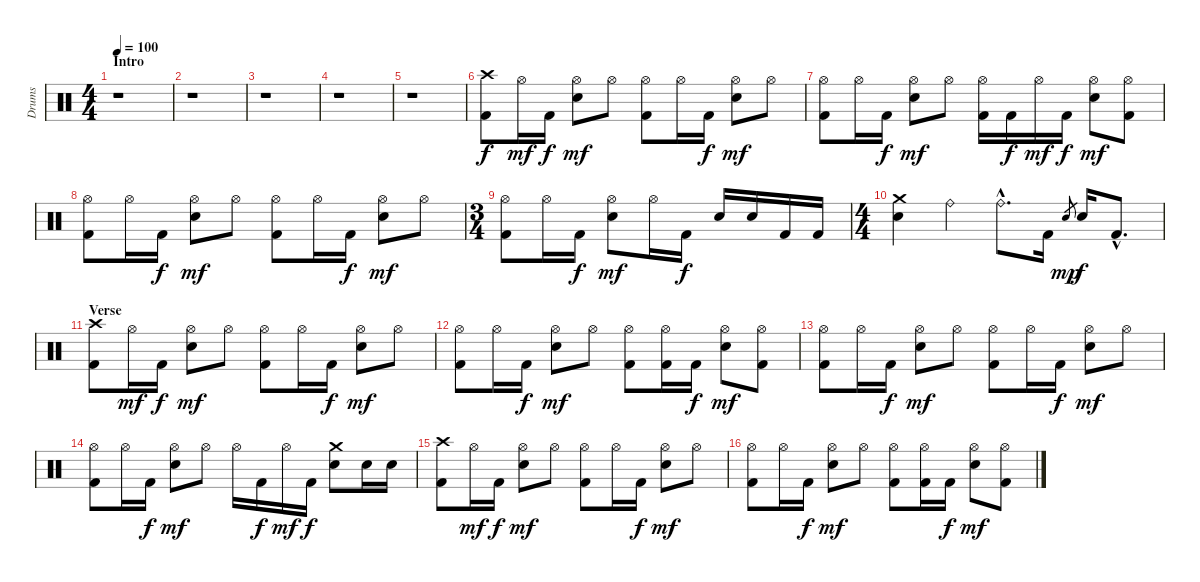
\track ("Drums" "Drums") {instrument percussion}
\staff {score}
\articulation defaults
\ts (4 4)
\section ("" "Intro")
\tempo 100
\clef neutral
\ks c
r.1{dy f} |
r.1 |
r.1 |
r.1 |
r.1 |
("Crash high (hit)" "Kick (hit) 2").8 "Hi-Hat (open)".16{dy mf} "Kick (hit) 2".16{dy f} ("Hi-Hat (open)" "Electric Snare (hit)").8{dy mf} "Hi-Hat (open)".8 ("Hi-Hat (open)" "Kick (hit) 2").8 "Hi-Hat (open)".16 "Kick (hit) 2".16{dy f} ("Hi-Hat (open)" "Electric Snare (hit)").8{dy mf} "Hi-Hat (open)".8 |
("Hi-Hat (open)" "Kick (hit) 2").8 "Hi-Hat (open)".16 "Kick (hit) 2".16{dy f} ("Hi-Hat (open)" "Electric Snare (hit)").8{dy mf} "Hi-Hat (open)".8 ("Hi-Hat (open)" "Kick (hit) 2").16 "Kick (hit) 2".16{dy f} "Hi-Hat (open)".16{dy mf} "Kick (hit) 2".16{dy f} ("Hi-Hat (open)" "Electric Snare (hit)").8{dy mf} ("Hi-Hat (open)" "Kick (hit) 2").8 |
("Hi-Hat (open)" "Kick (hit) 2").8 "Hi-Hat (open)".16 "Kick (hit) 2".16{dy f} ("Hi-Hat (open)" "Electric Snare (hit)").8{dy mf} "Hi-Hat (open)".8 ("Hi-Hat (open)" "Kick (hit) 2").8 "Hi-Hat (open)".16 "Kick (hit) 2".16{dy f} ("Hi-Hat (open)" "Electric Snare (hit)").8{dy mf} "Hi-Hat (open)".8 |
\ts (3 4)
("Hi-Hat (open)" "Kick (hit) 2").8 "Hi-Hat (open)".16 "Kick (hit) 2".16{dy f} ("Hi-Hat (open)" "Electric Snare (hit)").8{dy mf} "Hi-Hat (open)".16 "Kick (hit) 2".16{dy f} "Electric Snare (hit)".16 "Electric Snare (hit)".16 "Kick (hit) 2".16 "Kick (hit) 2".16 |
\ts (4 4)
("Crash medium (hit)" "Electric Snare (hit)").4 "Ride (bell)".4 "Ride (bell)"{hac}.8{d} "Kick (hit) 2".16 "Electric Snare (hit)".8{gr dy mp} "Electric Snare (hit)".16{dy f} "Kick (hit) 2"{hac}.8{d} |
\section ("" "Verse")
("Crash high (hit)" "Kick (hit) 2").8 "Hi-Hat (open)".16{dy mf} "Kick (hit) 2".16{dy f} ("Hi-Hat (open)" "Electric Snare (hit)").8{dy mf} "Hi-Hat (open)".8 ("Hi-Hat (open)" "Kick (hit) 2").8 "Hi-Hat (open)".16 "Kick (hit) 2".16{dy f} ("Hi-Hat (open)" "Electric Snare (hit)").8{dy mf} "Hi-Hat (open)".8 |
("Hi-Hat (open)" "Kick (hit) 2").8 "Hi-Hat (open)".16 "Kick (hit) 2".16{dy f} ("Hi-Hat (open)" "Electric Snare (hit)").8{dy mf} "Hi-Hat (open)".8 ("Hi-Hat (open)" "Kick (hit) 2").8 ("Hi-Hat (open)" "Kick (hit) 2").16 "Kick (hit) 2".16{dy f} ("Hi-Hat (open)" "Electric Snare (hit)").8{dy mf} ("Hi-Hat (open)" "Kick (hit) 2").8 |
("Hi-Hat (open)" "Kick (hit) 2").8 "Hi-Hat (open)".16 "Kick (hit) 2".16{dy f} ("Hi-Hat (open)" "Electric Snare (hit)").8{dy mf} "Hi-Hat (open)".8 ("Hi-Hat (open)" "Kick (hit) 2").8 "Hi-Hat (open)".16 "Kick (hit) 2".16{dy f} ("Hi-Hat (open)" "Electric Snare (hit)").8{dy mf} "Hi-Hat (open)".8 |
("Hi-Hat (open)" "Kick (hit) 2").8 "Hi-Hat (open)".16 "Kick (hit) 2".16{dy f} ("Hi-Hat (open)" "Electric Snare (hit)").8{dy mf} "Hi-Hat (open)".8 "Hi-Hat (open)".16 "Kick (hit) 2".16{dy f} "Hi-Hat (open)".16{dy mf} "Kick (hit) 2".16{dy f} ("Crash medium (hit)" "Electric Snare (hit)").8 "Electric Snare (hit)".16 "Electric Snare (hit)".16 |
("Crash high (hit)" "Kick (hit) 2").8 "Hi-Hat (open)".16{dy mf} "Kick (hit) 2".16{dy f} ("Hi-Hat (open)" "Electric Snare (hit)").8{dy mf} "Hi-Hat (open)".8 ("Hi-Hat (open)" "Kick (hit) 2").8 "Hi-Hat (open)".16 "Kick (hit) 2".16{dy f} ("Hi-Hat (open)" "Electric Snare (hit)").8{dy mf} "Hi-Hat (open)".8 |
("Hi-Hat (open)" "Kick (hit) 2").8 "Hi-Hat (open)".16 "Kick (hit) 2".16{dy f} ("Hi-Hat (open)" "Electric Snare (hit)").8{dy mf} "Hi-Hat (open)".8 ("Hi-Hat (open)" "Kick (hit) 2").8 ("Hi-Hat (open)" "Kick (hit) 2").16 "Kick (hit) 2".16{dy f} ("Hi-Hat (open)" "Electric Snare (hit)").8{dy mf} ("Hi-Hat (open)" "Kick (hit) 2").8
